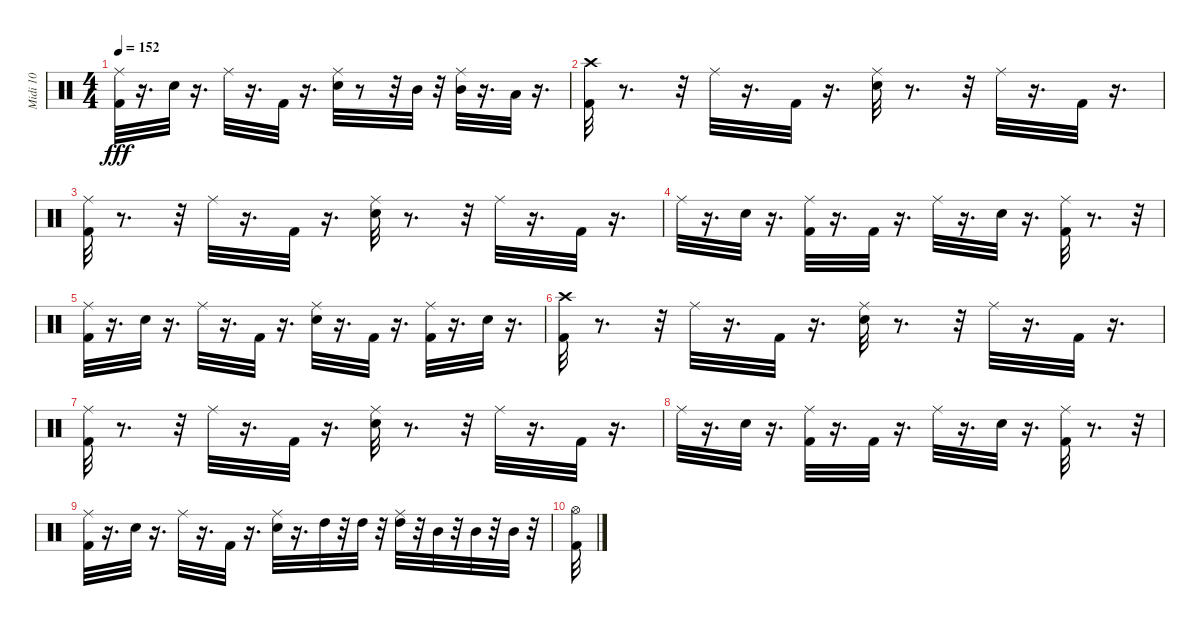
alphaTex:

\track ("Midi 10" "Midi 10") {instrument percussion}
\staff {score}
\articulation defaults
\ts (4 4)
\tempo 152
\clef neutral
\ks c
("Kick (hit) 2" "Ride (middle)").32{dy fff} r.16{d} "Electric Snare (hit)".32 r.16{d} "Ride (middle)".32 r.16{d} "Kick (hit) 2".32 r.16{d} ("Electric Snare (hit)" "Ride (middle)").32 r.8 r.32 "Mid Tom (hit)".32 r.32 ("Mid Tom (hit)" "Ride (middle)").32 r.16{d} "Low Tom (hit)".32 r.16{d} |
("Kick (hit) 2" "Crash high (hit)").32 r.8{d} r.32 "Ride (middle)".32 r.16{d} "Kick (hit) 2".32 r.16{d} ("Ride (middle)" "Electric Snare (hit)").32 r.8{d} r.32 "Ride (middle)".32 r.16{d} "Kick (hit) 2".32 r.16{d} |
("Kick (hit) 2" "Ride (middle)").32 r.8{d} r.32 "Ride (middle)".32 r.16{d} "Kick (hit) 2".32 r.16{d} ("Electric Snare (hit)" "Ride (middle)").32 r.8{d} r.32 "Ride (middle)".32 r.16{d} "Kick (hit) 2".32 r.16{d} |
"Ride (middle)".32 r.16{d} "Electric Snare (hit)".32 r.16{d} ("Kick (hit) 2" "Ride (middle)").32 r.16{d} "Kick (hit) 2".32 r.16{d} "Ride (middle)".32 r.16{d} "Electric Snare (hit)".32 r.16{d} ("Kick (hit) 2" "Ride (middle)").32 r.8{d} r.32 |
("Kick (hit) 2" "Ride (middle)").32 r.16{d} "Electric Snare (hit)".32 r.16{d} "Ride (middle)".32 r.16{d} "Kick (hit) 2".32 r.16{d} ("Electric Snare (hit)" "Ride (middle)").32 r.16{d} "Kick (hit) 2".32 r.16{d} ("Kick (hit) 2" "Ride (middle)").32 r.16{d} "Electric Snare (hit)".32 r.16{d} |
("Crash high (hit)" "Kick (hit) 2").32 r.8{d} r.32 "Ride (middle)".32 r.16{d} "Kick (hit) 2".32 r.16{d} ("Electric Snare (hit)" "Ride (middle)").32 r.8{d} r.32 "Ride (middle)".32 r.16{d} "Kick (hit) 2".32 r.16{d} |
("Ride (middle)" "Kick (hit) 2").32 r.8{d} r.32 "Ride (middle)".32 r.16{d} "Kick (hit) 2".32 r.16{d} ("Ride (middle)" "Electric Snare (hit)").32 r.8{d} r.32 "Ride (middle)".32 r.16{d} "Kick (hit) 2".32 r.16{d} |
"Ride (middle)".32 r.16{d} "Electric Snare (hit)".32 r.16{d} ("Ride (middle)" "Kick (hit) 2").32 r.16{d} "Kick (hit) 2".32 r.16{d} "Ride (middle)".32 r.16{d} "Electric Snare (hit)".32 r.16{d} ("Ride (middle)" "Kick (hit) 2").32 r.8{d} r.32 |
("Ride (middle)" "Kick (hit) 2").32 r.16{d} "Electric Snare (hit)".32 r.16{d} "Ride (middle)".32 r.16{d} "Kick (hit) 2".32 r.16{d} ("Ride (middle)" "Electric Snare (hit)").32 r.16{d} "High Tom (hit)".32 r.32 "High Tom (hit)".32 r.32 ("High Tom (hit)" "Ride (middle)").32 r.32 "Mid Tom (hit)".32 r.32 "Mid Tom (hit)".32 r.32 "Mid Tom (hit)".32 r.32 |
("Hi-Hat (open)" "Kick (hit) 2").32
